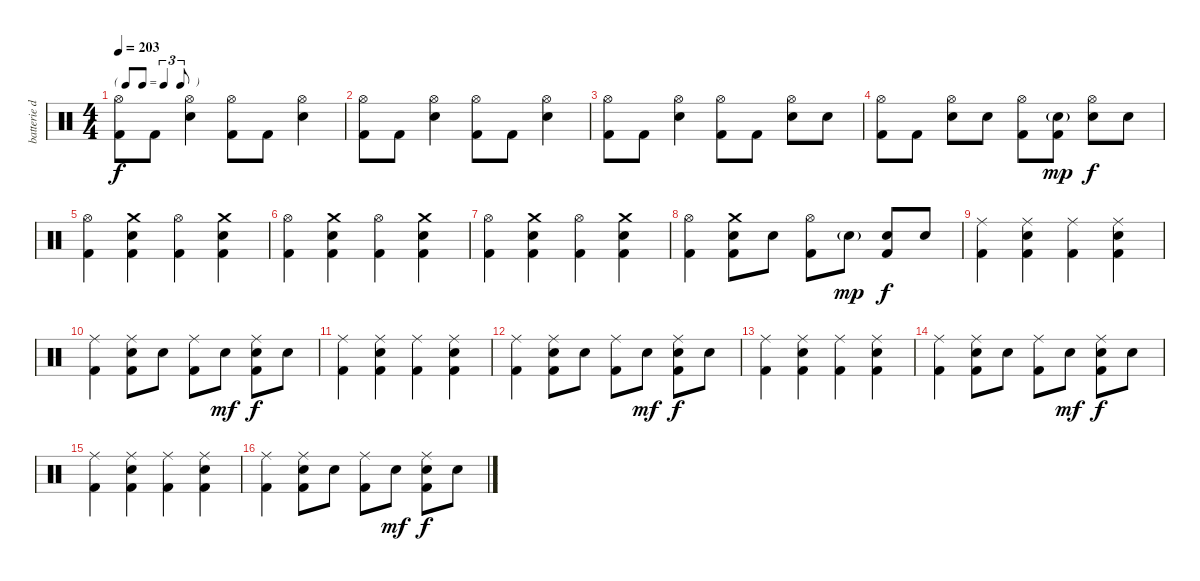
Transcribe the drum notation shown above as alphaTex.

\track ("batterie dub" "batterie d") {instrument percussion}
\staff {score}
\articulation defaults
\ts (4 4)
\tf triplet8th
\tempo 203
\clef neutral
\ks c
("Hi-Hat (open)" "Kick (hit) 2").8{dy f} "Kick (hit) 2".8 ("Hi-Hat (open)" "Electric Snare (hit)").4 ("Hi-Hat (open)" "Kick (hit) 2").8 "Kick (hit) 2".8 ("Hi-Hat (open)" "Electric Snare (hit)").4 |
("Hi-Hat (open)" "Kick (hit) 2").8 "Kick (hit) 2".8 ("Hi-Hat (open)" "Electric Snare (hit)").4 ("Hi-Hat (open)" "Kick (hit) 2").8 "Kick (hit) 2".8 ("Hi-Hat (open)" "Electric Snare (hit)").4 |
("Hi-Hat (open)" "Kick (hit) 2").8 "Kick (hit) 2".8 ("Hi-Hat (open)" "Electric Snare (hit)").4 ("Hi-Hat (open)" "Kick (hit) 2").8 "Kick (hit) 2".8 ("Hi-Hat (open)" "Electric Snare (hit)").8 "Electric Snare (hit)".8 |
("Hi-Hat (open)" "Kick (hit) 2").8 "Kick (hit) 2".8 ("Hi-Hat (open)" "Electric Snare (hit)").8 "Electric Snare (hit)".8 ("Hi-Hat (open)" "Kick (hit) 2").8 ("Electric Snare (hit)"{g} "Kick (hit) 2").8{dy mp} ("Hi-Hat (open)" "Electric Snare (hit)").8{dy f} "Electric Snare (hit)".8 |
("Hi-Hat (open)" "Kick (hit) 2").4 ("Crash medium (hit)" "Electric Snare (hit)" "Kick (hit) 2").4 ("Hi-Hat (open)" "Kick (hit) 2").4 ("Crash medium (hit)" "Electric Snare (hit)" "Kick (hit) 2").4 |
("Hi-Hat (open)" "Kick (hit) 2").4 ("Crash medium (hit)" "Electric Snare (hit)" "Kick (hit) 2").4 ("Hi-Hat (open)" "Kick (hit) 2").4 ("Crash medium (hit)" "Electric Snare (hit)" "Kick (hit) 2").4 |
("Hi-Hat (open)" "Kick (hit) 2").4 ("Crash medium (hit)" "Electric Snare (hit)" "Kick (hit) 2").4 ("Hi-Hat (open)" "Kick (hit) 2").4 ("Crash medium (hit)" "Electric Snare (hit)" "Kick (hit) 2").4 |
("Hi-Hat (open)" "Kick (hit) 2").4 ("Crash medium (hit)" "Electric Snare (hit)" "Kick (hit) 2").8 "Electric Snare (hit)".8 ("Hi-Hat (open)" "Kick (hit) 2").8 "Electric Snare (hit)"{g}.8{dy mp} ("Electric Snare (hit)" "Kick (hit) 2").8{dy f} "Electric Snare (hit)".8 |
("Ride (middle)" "Kick (hit) 2").4 ("Ride (middle)" "Electric Snare (hit)" "Kick (hit) 2").4 ("Ride (middle)" "Kick (hit) 2").4 ("Ride (middle)" "Electric Snare (hit)" "Kick (hit) 2").4 |
("Ride (middle)" "Kick (hit) 2").4 ("Ride (middle)" "Electric Snare (hit)" "Kick (hit) 2").8 "Electric Snare (hit)".8 ("Ride (middle)" "Kick (hit) 2").8 "Electric Snare (hit)".8{dy mf} ("Ride (middle)" "Electric Snare (hit)" "Kick (hit) 2").8{dy f} "Electric Snare (hit)".8 |
("Ride (middle)" "Kick (hit) 2").4 ("Ride (middle)" "Electric Snare (hit)" "Kick (hit) 2").4 ("Ride (middle)" "Kick (hit) 2").4 ("Ride (middle)" "Electric Snare (hit)" "Kick (hit) 2").4 |
("Ride (middle)" "Kick (hit) 2").4 ("Ride (middle)" "Electric Snare (hit)" "Kick (hit) 2").8 "Electric Snare (hit)".8 ("Ride (middle)" "Kick (hit) 2").8 "Electric Snare (hit)".8{dy mf} ("Ride (middle)" "Electric Snare (hit)" "Kick (hit) 2").8{dy f} "Electric Snare (hit)".8 |
("Ride (middle)" "Kick (hit) 2").4 ("Ride (middle)" "Electric Snare (hit)" "Kick (hit) 2").4 ("Ride (middle)" "Kick (hit) 2").4 ("Ride (middle)" "Electric Snare (hit)" "Kick (hit) 2").4 |
("Ride (middle)" "Kick (hit) 2").4 ("Ride (middle)" "Electric Snare (hit)" "Kick (hit) 2").8 "Electric Snare (hit)".8 ("Ride (middle)" "Kick (hit) 2").8 "Electric Snare (hit)".8{dy mf} ("Ride (middle)" "Electric Snare (hit)" "Kick (hit) 2").8{dy f} "Electric Snare (hit)".8 |
("Ride (middle)" "Kick (hit) 2").4 ("Ride (middle)" "Electric Snare (hit)" "Kick (hit) 2").4 ("Ride (middle)" "Kick (hit) 2").4 ("Ride (middle)" "Electric Snare (hit)" "Kick (hit) 2").4 |
("Ride (middle)" "Kick (hit) 2").4 ("Ride (middle)" "Electric Snare (hit)" "Kick (hit) 2").8 "Electric Snare (hit)".8 ("Ride (middle)" "Kick (hit) 2").8 "Electric Snare (hit)".8{dy mf} ("Ride (middle)" "Electric Snare (hit)" "Kick (hit) 2").8{dy f} "Electric Snare (hit)".8
